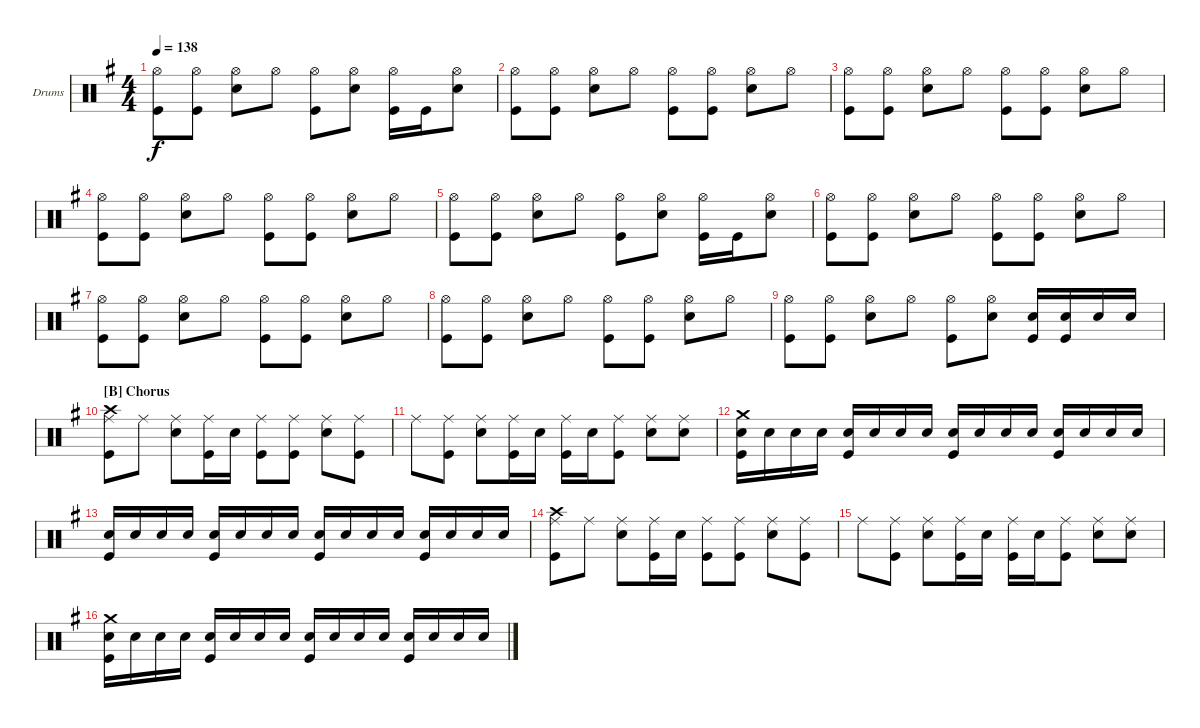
\defaultSystemsLayout 4
\bracketExtendMode groupsimilarinstruments
\firstSystemTrackNameOrientation horizontal
\otherSystemsTrackNameOrientation horizontal
\track ("Drumkit" "Drums") {instrument percussion}
\staff {score}
\articulation defaults
\ts (4 4)
\tempo 138
\clef neutral
\scale
1.04288
\ks g
("Hi-Hat (open)" "Kick (hit)").8{dy f} ("Hi-Hat (open)" "Kick (hit)").8 ("Hi-Hat (open)" "Snare (hit) 2").8 "Hi-Hat (open)".8 ("Hi-Hat (open)" "Kick (hit)").8 ("Hi-Hat (open)" "Snare (hit) 2").8 ("Hi-Hat (open)" "Kick (hit)").16 "Kick (hit)".16 ("Hi-Hat (open)" "Snare (hit) 2").8 |
\scale
0.957125 ("Hi-Hat (open)" "Kick (hit)").8 ("Hi-Hat (open)" "Kick (hit)").8 ("Hi-Hat (open)" "Snare (hit) 2").8 "Hi-Hat (open)".8 ("Hi-Hat (open)" "Kick (hit)").8 ("Hi-Hat (open)" "Kick (hit)").8 ("Hi-Hat (open)" "Snare (hit) 2").8 "Hi-Hat (open)".8 |
\scale
1.04288 ("Hi-Hat (open)" "Kick (hit)").8 ("Hi-Hat (open)" "Kick (hit)").8 ("Hi-Hat (open)" "Snare (hit) 2").8 "Hi-Hat (open)".8 ("Hi-Hat (open)" "Kick (hit)").8 ("Hi-Hat (open)" "Kick (hit)").8 ("Hi-Hat (open)" "Snare (hit) 2").8 "Hi-Hat (open)".8 |
\scale
0.957125 ("Hi-Hat (open)" "Kick (hit)").8 ("Hi-Hat (open)" "Kick (hit)").8 ("Hi-Hat (open)" "Snare (hit) 2").8 "Hi-Hat (open)".8 ("Hi-Hat (open)" "Kick (hit)").8 ("Hi-Hat (open)" "Kick (hit)").8 ("Hi-Hat (open)" "Snare (hit) 2").8 "Hi-Hat (open)".8 |
\scale
1.04288 ("Hi-Hat (open)" "Kick (hit)").8 ("Hi-Hat (open)" "Kick (hit)").8 ("Hi-Hat (open)" "Snare (hit) 2").8 "Hi-Hat (open)".8 ("Hi-Hat (open)" "Kick (hit)").8 ("Hi-Hat (open)" "Snare (hit) 2").8 ("Hi-Hat (open)" "Kick (hit)").16 "Kick (hit)".16 ("Hi-Hat (open)" "Snare (hit) 2").8 |
\scale
0.957125 ("Hi-Hat (open)" "Kick (hit)").8 ("Hi-Hat (open)" "Kick (hit)").8 ("Hi-Hat (open)" "Snare (hit) 2").8 "Hi-Hat (open)".8 ("Hi-Hat (open)" "Kick (hit)").8 ("Hi-Hat (open)" "Kick (hit)").8 ("Hi-Hat (open)" "Snare (hit) 2").8 "Hi-Hat (open)".8 |
\scale
1.04288 ("Hi-Hat (open)" "Kick (hit)").8 ("Hi-Hat (open)" "Kick (hit)").8 ("Hi-Hat (open)" "Snare (hit) 2").8 "Hi-Hat (open)".8 ("Hi-Hat (open)" "Kick (hit)").8 ("Hi-Hat (open)" "Kick (hit)").8 ("Hi-Hat (open)" "Snare (hit) 2").8 "Hi-Hat (open)".8 |
\scale
0.957125 ("Hi-Hat (open)" "Kick (hit)").8 ("Hi-Hat (open)" "Kick (hit)").8 ("Hi-Hat (open)" "Snare (hit) 2").8 "Hi-Hat (open)".8 ("Hi-Hat (open)" "Kick (hit)").8 ("Hi-Hat (open)" "Kick (hit)").8 ("Hi-Hat (open)" "Snare (hit) 2").8 "Hi-Hat (open)".8 |
\scale
1.04288 ("Hi-Hat (open)" "Kick (hit)").8 ("Hi-Hat (open)" "Kick (hit)").8 ("Hi-Hat (open)" "Snare (hit) 2").8 "Hi-Hat (open)".8 ("Hi-Hat (open)" "Kick (hit)").8 ("Hi-Hat (open)" "Snare (hit) 2").8 ("Snare (hit) 2" "Kick (hit)").16 ("Snare (hit) 2" "Kick (hit)").16 "Snare (hit) 2".16 "Snare (hit) 2".16 |
\section ("B" "Chorus")
\scale
0.957125 ("Ride (middle)" "Crash high (hit)" "Kick (hit)").8 "Ride (middle)".8 ("Ride (middle)" "Snare (hit) 2").8 ("Ride (middle)" "Kick (hit)").16 "Snare (hit) 2".16 ("Ride (middle)" "Kick (hit)").8 ("Ride (middle)" "Kick (hit)").8 ("Ride (middle)" "Snare (hit) 2").8 ("Ride (middle)" "Kick (hit)").8 |
\scale
1.04288 "Ride (middle)".8 ("Ride (middle)" "Kick (hit)").8 ("Ride (middle)" "Snare (hit) 2").8 ("Ride (middle)" "Kick (hit)").16 "Snare (hit) 2".16 ("Ride (middle)" "Kick (hit)").16 "Snare (hit) 2".16 ("Ride (middle)" "Kick (hit)").8 ("Ride (middle)" "Snare (hit) 2").8 ("Ride (middle)" "Snare (hit) 2").8 |
\scale
0.957125 ("Crash medium (hit)" "Snare (hit) 2" "Kick (hit)").16 "Snare (hit) 2".16 "Snare (hit) 2".16 "Snare (hit) 2".16 ("Snare (hit) 2" "Kick (hit)").16 "Snare (hit) 2".16 "Snare (hit) 2".16 "Snare (hit) 2".16 ("Snare (hit) 2" "Kick (hit)").16 "Snare (hit) 2".16 "Snare (hit) 2".16 "Snare (hit) 2".16 ("Snare (hit) 2" "Kick (hit)").16 "Snare (hit) 2".16 "Snare (hit) 2".16 "Snare (hit) 2".16 |
\scale
1.04288 ("Snare (hit) 2" "Kick (hit)").16 "Snare (hit) 2".16 "Snare (hit) 2".16 "Snare (hit) 2".16 ("Snare (hit) 2" "Kick (hit)").16 "Snare (hit) 2".16 "Snare (hit) 2".16 "Snare (hit) 2".16 ("Snare (hit) 2" "Kick (hit)").16 "Snare (hit) 2".16 "Snare (hit) 2".16 "Snare (hit) 2".16 ("Snare (hit) 2" "Kick (hit)").16 "Snare (hit) 2".16 "Snare (hit) 2".16 "Snare (hit) 2".16 |
\scale
0.957125 ("Ride (middle)" "Crash high (hit)" "Kick (hit)").8 "Ride (middle)".8 ("Ride (middle)" "Snare (hit) 2").8 ("Ride (middle)" "Kick (hit)").16 "Snare (hit) 2".16 ("Ride (middle)" "Kick (hit)").8 ("Ride (middle)" "Kick (hit)").8 ("Ride (middle)" "Snare (hit) 2").8 ("Ride (middle)" "Kick (hit)").8 |
\scale
1.04288 "Ride (middle)".8 ("Ride (middle)" "Kick (hit)").8 ("Ride (middle)" "Snare (hit) 2").8 ("Ride (middle)" "Kick (hit)").16 "Snare (hit) 2".16 ("Ride (middle)" "Kick (hit)").16 "Snare (hit) 2".16 ("Ride (middle)" "Kick (hit)").8 ("Ride (middle)" "Snare (hit) 2").8 ("Ride (middle)" "Snare (hit) 2").8 |
\scale
0.957125 ("Crash medium (hit)" "Snare (hit) 2" "Kick (hit)").16 "Snare (hit) 2".16 "Snare (hit) 2".16 "Snare (hit) 2".16 ("Snare (hit) 2" "Kick (hit)").16 "Snare (hit) 2".16 "Snare (hit) 2".16 "Snare (hit) 2".16 ("Snare (hit) 2" "Kick (hit)").16 "Snare (hit) 2".16 "Snare (hit) 2".16 "Snare (hit) 2".16 ("Snare (hit) 2" "Kick (hit)").16 "Snare (hit) 2".16 "Snare (hit) 2".16 "Snare (hit) 2".16
